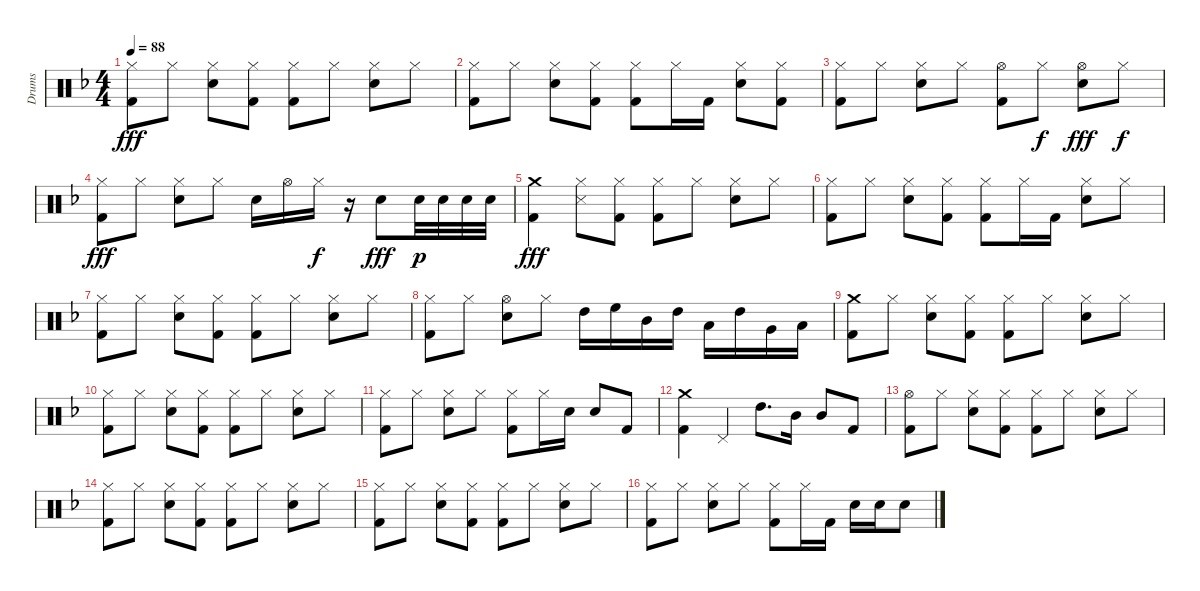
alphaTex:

\track ("Drums" "Drums") {instrument percussion}
\staff {score}
\articulation defaults
\ts (4 4)
\tempo 88
\clef neutral
\ks dminor
("Hi-Hat (closed)" "Kick (hit) 2").8{dy fff} "Hi-Hat (closed)".8 ("Hi-Hat (closed)" "Snare (hit) 2").8 ("Hi-Hat (closed)" "Kick (hit) 2").8 ("Hi-Hat (closed)" "Kick (hit) 2").8 "Hi-Hat (closed)".8 ("Hi-Hat (closed)" "Snare (hit) 2").8 "Hi-Hat (closed)".8 |
("Hi-Hat (closed)" "Kick (hit) 2").8 "Hi-Hat (closed)".8 ("Hi-Hat (closed)" "Snare (hit) 2").8 ("Hi-Hat (closed)" "Kick (hit) 2").8 ("Hi-Hat (closed)" "Kick (hit) 2").8 "Hi-Hat (closed)".16 "Kick (hit) 2".16 ("Hi-Hat (closed)" "Snare (hit) 2").8 ("Hi-Hat (closed)" "Kick (hit) 2").8 |
("Hi-Hat (closed)" "Kick (hit) 2").8 "Hi-Hat (closed)".8 ("Hi-Hat (closed)" "Snare (hit) 2").8 "Hi-Hat (closed)".8 ("Hi-Hat (open)" "Kick (hit) 2").8 "Hi-Hat (closed)".8{dy f} ("Hi-Hat (open)" "Snare (hit) 2").8{dy fff} "Hi-Hat (closed)".8{dy f} |
("Hi-Hat (closed)" "Kick (hit) 2").8{dy fff} "Hi-Hat (closed)".8 ("Hi-Hat (closed)" "Snare (hit) 2").8 "Hi-Hat (closed)".8 "Snare (hit) 2".16 "Hi-Hat (open)".16 "Hi-Hat (closed)".16{dy f} r.16 "Snare (hit) 2".8{dy fff} "Snare (hit) 2".32{dy p} "Snare (hit) 2".32 "Snare (hit) 2".32 "Snare (hit) 2".32 |
("Crash medium (hit)" "Kick (hit) 2").4{dy fff} ("Hi-Hat (closed)" "Snare (side stick) 3").8 ("Hi-Hat (closed)" "Kick (hit) 2").8 ("Hi-Hat (closed)" "Kick (hit) 2").8 "Hi-Hat (closed)".8 ("Hi-Hat (closed)" "Snare (hit) 2").8 "Hi-Hat (closed)".8 |
("Hi-Hat (closed)" "Kick (hit) 2").8 "Hi-Hat (closed)".8 ("Hi-Hat (closed)" "Snare (hit) 2").8 ("Hi-Hat (closed)" "Kick (hit) 2").8 ("Hi-Hat (closed)" "Kick (hit) 2").8 "Hi-Hat (closed)".16 "Kick (hit) 2".16 ("Hi-Hat (closed)" "Snare (hit) 2").8 "Hi-Hat (closed)".8 |
("Hi-Hat (closed)" "Kick (hit) 2").8 "Hi-Hat (closed)".8 ("Hi-Hat (closed)" "Snare (hit) 2").8 ("Hi-Hat (closed)" "Kick (hit) 2").8 ("Hi-Hat (closed)" "Kick (hit) 2").8 "Hi-Hat (closed)".8 ("Hi-Hat (closed)" "Snare (hit) 2").8 "Hi-Hat (closed)".8 |
("Hi-Hat (closed)" "Kick (hit) 2").8 "Hi-Hat (closed)".8 ("Hi-Hat (open)" "Snare (hit) 2").8 "Hi-Hat (closed)".8 "High Tom (hit)".16 "High Floor Tom (hit)".16 "Mid Tom (hit)".16 "High Tom (hit)".16 "Low Tom (hit)".16 "High Tom (hit)".16 "Very Low Tom (hit)".16 "Low Tom (hit)".16 |
("Crash medium (hit)" "Kick (hit) 2").8 "Hi-Hat (closed)".8 ("Hi-Hat (closed)" "Snare (hit) 2").8 ("Hi-Hat (closed)" "Kick (hit) 2").8 ("Hi-Hat (closed)" "Kick (hit) 2").8 "Hi-Hat (closed)".8 ("Hi-Hat (closed)" "Snare (hit) 2").8 "Hi-Hat (closed)".8 |
("Hi-Hat (closed)" "Kick (hit) 2").8 "Hi-Hat (closed)".8 ("Hi-Hat (closed)" "Snare (hit) 2").8 ("Hi-Hat (closed)" "Kick (hit) 2").8 ("Hi-Hat (closed)" "Kick (hit) 2").8 "Hi-Hat (closed)".8 ("Hi-Hat (closed)" "Snare (hit) 2").8 "Hi-Hat (closed)".8 |
("Hi-Hat (closed)" "Kick (hit) 2").8 "Hi-Hat (closed)".8 ("Hi-Hat (closed)" "Snare (hit) 2").8 "Hi-Hat (closed)".8 ("Hi-Hat (closed)" "Kick (hit) 2").8 "Hi-Hat (closed)".16 "Snare (hit) 2".16 "Snare (hit) 2".8 "Kick (hit) 2".8 |
("Crash medium (hit)" "Kick (hit) 2").4 "Pedal Hi-Hat (hit)".4 "High Tom (hit)".8{d} "Mid Tom (hit)".16 "Mid Tom (hit)".8 "Kick (hit) 2".8 |
("Hi-Hat (open)" "Kick (hit) 2").8 "Hi-Hat (closed)".8 ("Hi-Hat (closed)" "Snare (hit) 2").8 ("Hi-Hat (closed)" "Kick (hit) 2").8 ("Hi-Hat (closed)" "Kick (hit) 2").8 "Hi-Hat (closed)".8 ("Hi-Hat (closed)" "Snare (hit) 2").8 "Hi-Hat (closed)".8 |
("Hi-Hat (closed)" "Kick (hit) 2").8 "Hi-Hat (closed)".8 ("Hi-Hat (closed)" "Snare (hit) 2").8 ("Hi-Hat (closed)" "Kick (hit) 2").8 ("Hi-Hat (closed)" "Kick (hit) 2").8 "Hi-Hat (closed)".8 ("Hi-Hat (closed)" "Snare (hit) 2").8 "Hi-Hat (closed)".8 |
("Hi-Hat (closed)" "Kick (hit) 2").8 "Hi-Hat (closed)".8 ("Hi-Hat (closed)" "Snare (hit) 2").8 ("Hi-Hat (closed)" "Kick (hit) 2").8 ("Hi-Hat (closed)" "Kick (hit) 2").8 "Hi-Hat (closed)".8 ("Hi-Hat (closed)" "Snare (hit) 2").8 "Hi-Hat (closed)".8 |
("Hi-Hat (closed)" "Kick (hit) 2").8 "Hi-Hat (closed)".8 ("Hi-Hat (closed)" "Snare (hit) 2").8 "Hi-Hat (closed)".8 ("Hi-Hat (closed)" "Kick (hit) 2").8 "Hi-Hat (closed)".16 "Kick (hit) 2".16 "Snare (hit) 2".16 "Snare (hit) 2".16 "Snare (hit) 2".8
